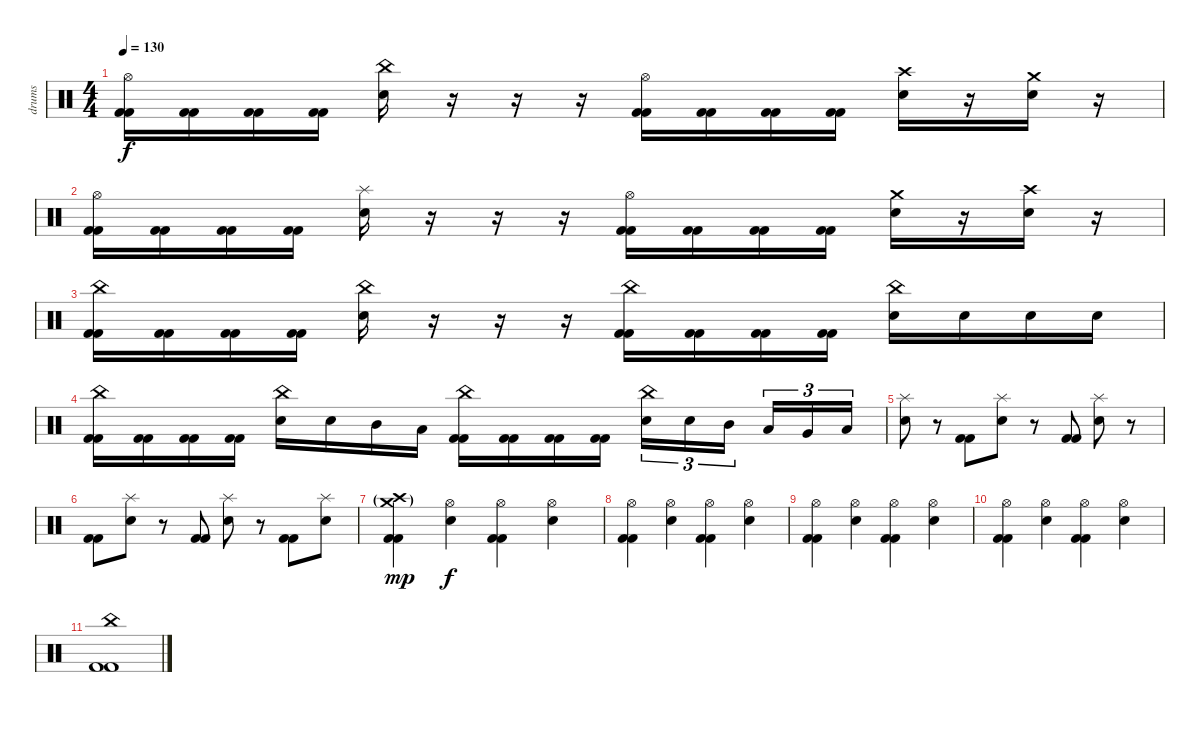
\track ("drums" "drums") {instrument percussion}
\staff {score}
\articulation defaults
\ts (4 4)
\tempo 130
\clef neutral
\ks c
("Hi-Hat (open)" "Kick (hit) 2" "Kick (hit) 2").16{dy f} ("Kick (hit) 2" "Kick (hit) 2").16 ("Kick (hit) 2" "Kick (hit) 2").16 ("Kick (hit) 2" "Kick (hit) 2").16 ("China (hit)" "Electric Snare (hit)").16 r.16 r.16 r.16 ("Hi-Hat (open)" "Kick (hit) 2" "Kick (hit) 2").16 ("Kick (hit) 2" "Kick (hit) 2").16 ("Kick (hit) 2" "Kick (hit) 2").16 ("Kick (hit) 2" "Kick (hit) 2").16 ("Crash high (hit)" "Electric Snare (hit)").16 r.16 ("Crash medium (hit)" "Electric Snare (hit)").16 r.16 |
("Hi-Hat (open)" "Kick (hit) 2" "Kick (hit) 2").16 ("Kick (hit) 2" "Kick (hit) 2").16 ("Kick (hit) 2" "Kick (hit) 2").16 ("Kick (hit) 2" "Kick (hit) 2").16 ("Splash (hit)" "Electric Snare (hit)").16 r.16 r.16 r.16 ("Hi-Hat (open)" "Kick (hit) 2" "Kick (hit) 2").16 ("Kick (hit) 2" "Kick (hit) 2").16 ("Kick (hit) 2" "Kick (hit) 2").16 ("Kick (hit) 2" "Kick (hit) 2").16 ("Crash medium (hit)" "Electric Snare (hit)").16 r.16 ("Crash high (hit)" "Electric Snare (hit)").16 r.16 |
("China (hit)" "Kick (hit) 2" "Kick (hit) 2").16 ("Kick (hit) 2" "Kick (hit) 2").16 ("Kick (hit) 2" "Kick (hit) 2").16 ("Kick (hit) 2" "Kick (hit) 2").16 ("China (hit)" "Electric Snare (hit)").16 r.16 r.16 r.16 ("China (hit)" "Kick (hit) 2" "Kick (hit) 2").16 ("Kick (hit) 2" "Kick (hit) 2").16 ("Kick (hit) 2" "Kick (hit) 2").16 ("Kick (hit) 2" "Kick (hit) 2").16 ("China (hit)" "Electric Snare (hit)").16 "Electric Snare (hit)".16 "Electric Snare (hit)".16 "Electric Snare (hit)".16 |
("China (hit)" "Kick (hit) 2" "Kick (hit) 2").16 ("Kick (hit) 2" "Kick (hit) 2").16 ("Kick (hit) 2" "Kick (hit) 2").16 ("Kick (hit) 2" "Kick (hit) 2").16 ("China (hit)" "Electric Snare (hit)").16 "Electric Snare (hit)".16 "Mid Tom (hit)".16 "Low Tom (hit)".16 ("China (hit)" "Kick (hit) 2" "Kick (hit) 2").16 ("Kick (hit) 2" "Kick (hit) 2").16 ("Kick (hit) 2" "Kick (hit) 2").16 ("Kick (hit) 2" "Kick (hit) 2").16 ("China (hit)" "Electric Snare (hit)").16{tu (3 2)} "Electric Snare (hit)".16{tu (3 2)} "Mid Tom (hit)".16{tu (3 2)} "Low Tom (hit)".16{tu (3 2)} "Very Low Tom (hit)".16{tu (3 2)} "Low Floor Tom (hit)".16{tu (3 2)} |
("Splash (hit)" "Snare (hit)").8 r.8 ("Kick (hit) 2" "Kick (hit) 2").8 ("Splash (hit)" "Electric Snare (hit)").8 r.8 ("Kick (hit) 2" "Kick (hit) 2").8 ("Splash (hit)" "Electric Snare (hit)").8 r.8 |
("Kick (hit) 2" "Kick (hit) 2").8 ("Splash (hit)" "Electric Snare (hit)").8 r.8 ("Kick (hit) 2" "Kick (hit) 2").8 ("Splash (hit)" "Electric Snare (hit)").8 r.8 ("Kick (hit) 2" "Kick (hit) 2").8 ("Splash (hit)" "Electric Snare (hit)").8 |
("Crash medium (hit)"{g} "Crash high (hit)"{g} "Kick (hit) 2" "Kick (hit) 2").4{dy mp} ("Hi-Hat (open)" "Electric Snare (hit)").4{dy f} ("Hi-Hat (open)" "Kick (hit) 2" "Kick (hit) 2").4 ("Hi-Hat (open)" "Electric Snare (hit)").4 |
("Hi-Hat (open)" "Kick (hit) 2" "Kick (hit) 2").4 ("Hi-Hat (open)" "Electric Snare (hit)").4 ("Hi-Hat (open)" "Kick (hit) 2" "Kick (hit) 2").4 ("Hi-Hat (open)" "Electric Snare (hit)").4 |
("Hi-Hat (open)" "Kick (hit) 2" "Kick (hit) 2").4 ("Hi-Hat (open)" "Electric Snare (hit)").4 ("Hi-Hat (open)" "Kick (hit) 2" "Kick (hit) 2").4 ("Hi-Hat (open)" "Electric Snare (hit)").4 |
("Hi-Hat (open)" "Kick (hit) 2" "Kick (hit) 2").4 ("Hi-Hat (open)" "Electric Snare (hit)").4 ("Hi-Hat (open)" "Kick (hit) 2" "Kick (hit) 2").4 ("Hi-Hat (open)" "Electric Snare (hit)").4 |
("China (hit)" "Kick (hit) 2" "Kick (hit) 2").1
